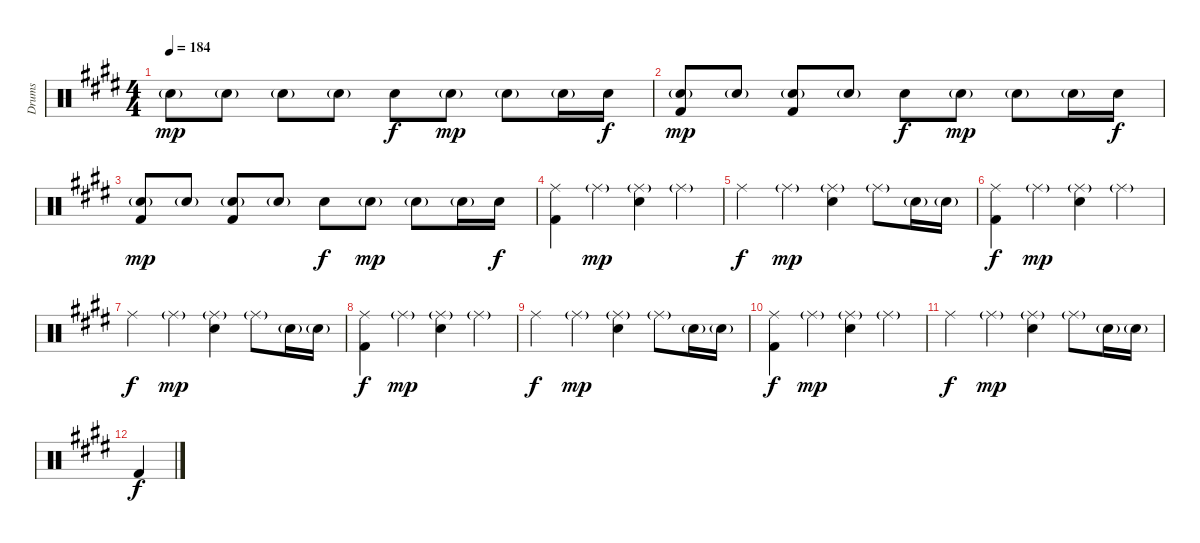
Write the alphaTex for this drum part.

\track ("Drums" "Drums") {instrument percussion}
\staff {score}
\articulation defaults
\ts (4 4)
\tempo 184
\clef neutral
\ks c#minor "Snare (hit) 2"{g}.8{dy mp} "Snare (hit) 2"{g}.8 "Snare (hit) 2"{g}.8 "Snare (hit) 2"{g}.8 "Snare (hit) 2".8{dy f} "Snare (hit) 2"{g}.8{dy mp} "Snare (hit) 2"{g}.8 "Snare (hit) 2"{g}.16 "Snare (hit) 2".16{dy f}
|
("Snare (hit) 2"{g} "Kick (hit) 2").8{dy mp} "Snare (hit) 2"{g}.8 ("Snare (hit) 2"{g} "Kick (hit) 2").8 "Snare (hit) 2"{g}.8 "Snare (hit) 2".8{dy f} "Snare (hit) 2"{g}.8{dy mp} "Snare (hit) 2"{g}.8 "Snare (hit) 2"{g}.16 "Snare (hit) 2".16{dy f} |
("Snare (hit) 2"{g} "Kick (hit) 2").8{dy mp} "Snare (hit) 2"{g}.8 ("Snare (hit) 2"{g} "Kick (hit) 2").8 "Snare (hit) 2"{g}.8 "Snare (hit) 2".8{dy f} "Snare (hit) 2"{g}.8{dy mp} "Snare (hit) 2"{g}.8 "Snare (hit) 2"{g}.16 "Snare (hit) 2".16{dy f} |
("Ride (middle)" "Kick (hit) 2").4 "Ride (middle)"{g}.4{dy mp} ("Ride (middle)"{g} "Snare (hit) 2").4 "Ride (middle)"{g}.4 |
"Ride (middle)".4{dy f} "Ride (middle)"{g}.4{dy mp} ("Ride (middle)"{g} "Snare (hit) 2").4 "Ride (middle)"{g}.8 "Snare (hit) 2"{g}.16 "Snare (hit) 2"{g}.16 |
("Ride (middle)" "Kick (hit) 2").4{dy f} "Ride (middle)"{g}.4{dy mp} ("Ride (middle)"{g} "Snare (hit) 2").4 "Ride (middle)"{g}.4 |
"Ride (middle)".4{dy f} "Ride (middle)"{g}.4{dy mp} ("Ride (middle)"{g} "Snare (hit) 2").4 "Ride (middle)"{g}.8 "Snare (hit) 2"{g}.16 "Snare (hit) 2"{g}.16 |
("Ride (middle)" "Kick (hit) 2").4{dy f} "Ride (middle)"{g}.4{dy mp} ("Ride (middle)"{g} "Snare (hit) 2").4 "Ride (middle)"{g}.4 |
"Ride (middle)".4{dy f} "Ride (middle)"{g}.4{dy mp} ("Ride (middle)"{g} "Snare (hit) 2").4 "Ride (middle)"{g}.8 "Snare (hit) 2"{g}.16 "Snare (hit) 2"{g}.16 |
("Ride (middle)" "Kick (hit) 2").4{dy f} "Ride (middle)"{g}.4{dy mp} ("Ride (middle)"{g} "Snare (hit) 2").4 "Ride (middle)"{g}.4 |
"Ride (middle)".4{dy f} "Ride (middle)"{g}.4{dy mp} ("Ride (middle)"{g} "Snare (hit) 2").4 "Ride (middle)"{g}.8 "Snare (hit) 2"{g}.16 "Snare (hit) 2"{g}.16 |
"Kick (hit) 2".4{dy f}
